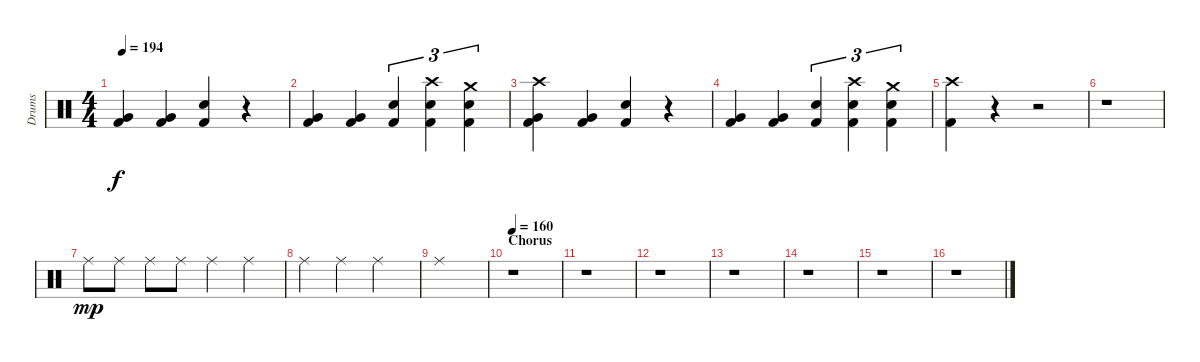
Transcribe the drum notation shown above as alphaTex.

\track ("Drums" "Drums") {instrument percussion}
\staff {score}
\articulation defaults
\ts (4 4)
\tempo 194
\clef neutral
\ks c
("Kick (hit) 2" "Very Low Tom (hit)").4{dy f} ("Kick (hit) 2" "Very Low Tom (hit)").4 ("Kick (hit) 2" "Electric Snare (hit)").4 r.4 |
("Kick (hit) 2" "Very Low Tom (hit)").4 ("Kick (hit) 2" "Very Low Tom (hit)").4 ("Kick (hit) 2" "Electric Snare (hit)").4{tu (3 2)} ("Kick (hit) 2" "Electric Snare (hit)" "Crash high (hit)").4{tu (3 2)} ("Kick (hit) 2" "Electric Snare (hit)" "Crash medium (hit)").4{tu (3 2)} |
("Kick (hit) 2" "Very Low Tom (hit)" "Crash high (hit)").4 ("Kick (hit) 2" "Very Low Tom (hit)").4 ("Kick (hit) 2" "Electric Snare (hit)").4 r.4 |
("Kick (hit) 2" "Very Low Tom (hit)").4 ("Kick (hit) 2" "Very Low Tom (hit)").4 ("Kick (hit) 2" "Electric Snare (hit)").4{tu (3 2)} ("Kick (hit) 2" "Electric Snare (hit)" "Crash high (hit)").4{tu (3 2)} ("Kick (hit) 2" "Electric Snare (hit)" "Crash medium (hit)").4{tu (3 2)} |
("Kick (hit) 2" "Crash high (hit)").4 r.4 r.2 |
r.1 |
"Ride (middle)".8{dy mp} "Ride (middle)".8 "Ride (middle)".8 "Ride (middle)".8 "Ride (middle)".4 "Ride (middle)".4 |
"Ride (middle)".4 "Ride (middle)".4 "Ride (middle)".2 |
"Ride (middle)".1 |
\section ("" "Chorus")
\tempo 160
r.1 |
r.1 |
r.1 |
r.1 |
r.1 |
r.1 |
r.1
